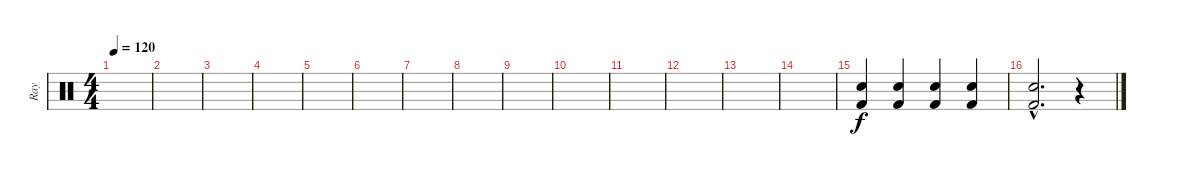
\track ("Ray" "Ray") {instrument percussion}
\staff {score}
\articulation defaults
\ts (4 4)
\tempo 120
\clef neutral
\ks c
|
|
|
|
|
|
|
|
|
|
|
|
|
|
("Snare (hit) 2" "Kick (hit) 2").4 ("Snare (hit) 2" "Kick (hit) 2").4 ("Snare (hit) 2" "Kick (hit) 2").4 ("Snare (hit) 2" "Kick (hit) 2").4 |
("Snare (hit) 2"{hac} "Kick (hit) 2"{hac}).2{d} r.4
